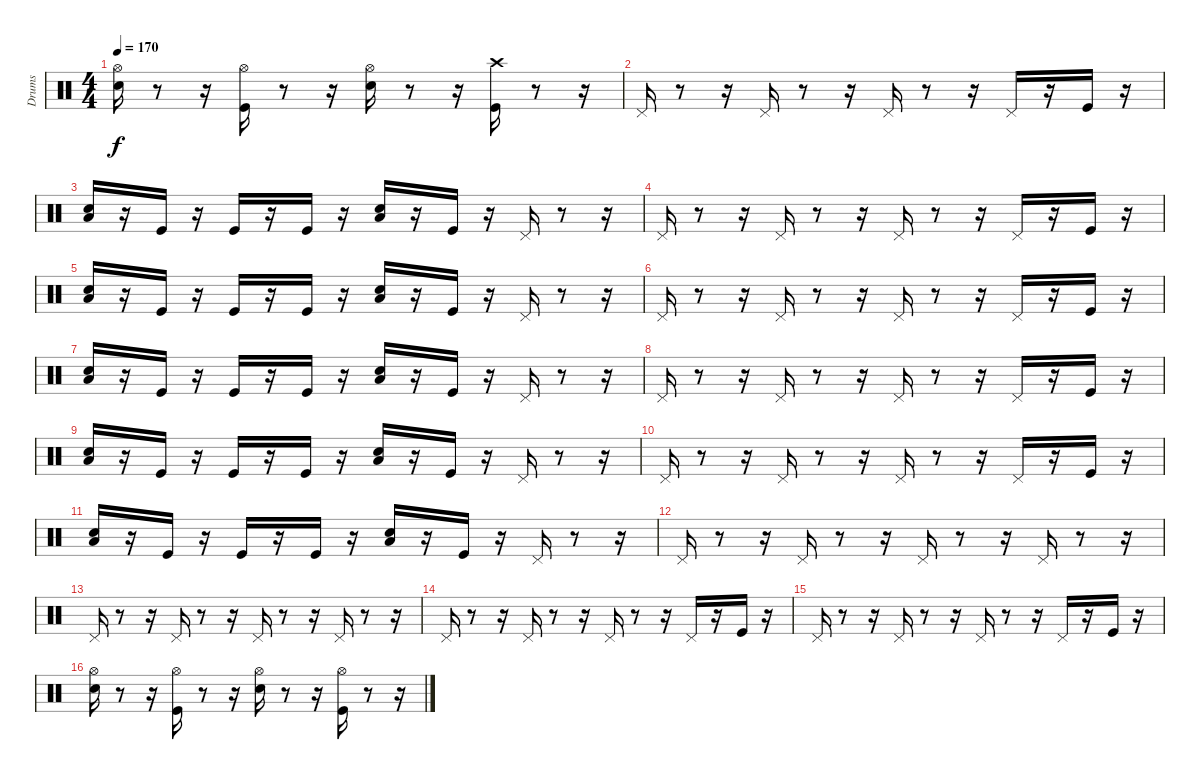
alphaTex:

\track ("Drums" "Drums") {instrument percussion}
\staff {score}
\articulation defaults
\ts (4 4)
\tempo 170
\clef neutral
\ks c
("Hi-Hat (open)" "Snare (hit) 2").16{dy f} r.8 r.16 ("Hi-Hat (open)" "Kick (hit)").16 r.8 r.16 ("Hi-Hat (open)" "Snare (hit) 2").16 r.8 r.16 ("Kick (hit)" "Crash high (hit)").16 r.8 r.16 |
"Pedal Hi-Hat (hit)".16 r.8 r.16 "Pedal Hi-Hat (hit)".16 r.8 r.16 "Pedal Hi-Hat (hit)".16 r.8 r.16 "Pedal Hi-Hat (hit)".16 r.16 "Kick (hit)".16 r.16 |
("Snare (hit) 2" "Low Tom (hit)").16 r.16 "Kick (hit)".16 r.16 "Kick (hit)".16 r.16 "Kick (hit)".16 r.16 ("Snare (hit) 2" "Low Tom (hit)").16 r.16 "Kick (hit)".16 r.16 "Pedal Hi-Hat (hit)".16 r.8 r.16 |
"Pedal Hi-Hat (hit)".16 r.8 r.16 "Pedal Hi-Hat (hit)".16 r.8 r.16 "Pedal Hi-Hat (hit)".16 r.8 r.16 "Pedal Hi-Hat (hit)".16 r.16 "Kick (hit)".16 r.16 |
("Snare (hit) 2" "Low Tom (hit)").16 r.16 "Kick (hit)".16 r.16 "Kick (hit)".16 r.16 "Kick (hit)".16 r.16 ("Snare (hit) 2" "Low Tom (hit)").16 r.16 "Kick (hit)".16 r.16 "Pedal Hi-Hat (hit)".16 r.8 r.16 |
"Pedal Hi-Hat (hit)".16 r.8 r.16 "Pedal Hi-Hat (hit)".16 r.8 r.16 "Pedal Hi-Hat (hit)".16 r.8 r.16 "Pedal Hi-Hat (hit)".16 r.16 "Kick (hit)".16 r.16 |
("Snare (hit) 2" "Low Tom (hit)").16 r.16 "Kick (hit)".16 r.16 "Kick (hit)".16 r.16 "Kick (hit)".16 r.16 ("Snare (hit) 2" "Low Tom (hit)").16 r.16 "Kick (hit)".16 r.16 "Pedal Hi-Hat (hit)".16 r.8 r.16 |
"Pedal Hi-Hat (hit)".16 r.8 r.16 "Pedal Hi-Hat (hit)".16 r.8 r.16 "Pedal Hi-Hat (hit)".16 r.8 r.16 "Pedal Hi-Hat (hit)".16 r.16 "Kick (hit)".16 r.16 |
("Snare (hit) 2" "Low Tom (hit)").16 r.16 "Kick (hit)".16 r.16 "Kick (hit)".16 r.16 "Kick (hit)".16 r.16 ("Snare (hit) 2" "Low Tom (hit)").16 r.16 "Kick (hit)".16 r.16 "Pedal Hi-Hat (hit)".16 r.8 r.16 |
"Pedal Hi-Hat (hit)".16 r.8 r.16 "Pedal Hi-Hat (hit)".16 r.8 r.16 "Pedal Hi-Hat (hit)".16 r.8 r.16 "Pedal Hi-Hat (hit)".16 r.16 "Kick (hit)".16 r.16 |
("Snare (hit) 2" "Low Tom (hit)").16 r.16 "Kick (hit)".16 r.16 "Kick (hit)".16 r.16 "Kick (hit)".16 r.16 ("Snare (hit) 2" "Low Tom (hit)").16 r.16 "Kick (hit)".16 r.16 "Pedal Hi-Hat (hit)".16 r.8 r.16 |
"Pedal Hi-Hat (hit)".16 r.8 r.16 "Pedal Hi-Hat (hit)".16 r.8 r.16 "Pedal Hi-Hat (hit)".16 r.8 r.16 "Pedal Hi-Hat (hit)".16 r.8 r.16 |
"Pedal Hi-Hat (hit)".16 r.8 r.16 "Pedal Hi-Hat (hit)".16 r.8 r.16 "Pedal Hi-Hat (hit)".16 r.8 r.16 "Pedal Hi-Hat (hit)".16 r.8 r.16 |
"Pedal Hi-Hat (hit)".16 r.8 r.16 "Pedal Hi-Hat (hit)".16 r.8 r.16 "Pedal Hi-Hat (hit)".16 r.8 r.16 "Pedal Hi-Hat (hit)".16 r.16 "Kick (hit)".16 r.16 |
"Pedal Hi-Hat (hit)".16 r.8 r.16 "Pedal Hi-Hat (hit)".16 r.8 r.16 "Pedal Hi-Hat (hit)".16 r.8 r.16 "Pedal Hi-Hat (hit)".16 r.16 "Kick (hit)".16 r.16 |
("Snare (hit) 2" "Hi-Hat (open)").16 r.8 r.16 ("Kick (hit)" "Hi-Hat (open)").16 r.8 r.16 ("Snare (hit) 2" "Hi-Hat (open)").16 r.8 r.16 ("Kick (hit)" "Hi-Hat (open)").16 r.8 r.16
